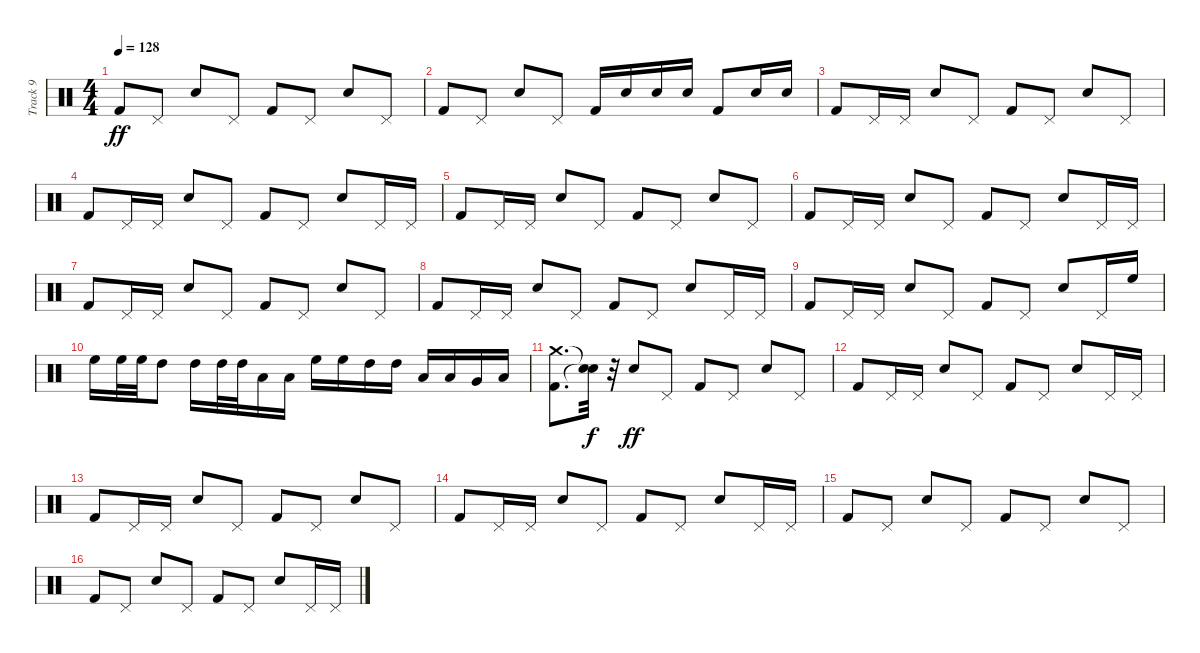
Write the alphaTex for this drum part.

\track ("Track 9" "Track 9") {instrument percussion}
\staff {score}
\articulation defaults
\ts (4 4)
\tempo 128
\clef neutral
\ks c "Kick (hit) 2".8{dy ff} "Pedal Hi-Hat (hit)".8 "Snare (hit) 2".8 "Pedal Hi-Hat (hit)".8 "Kick (hit) 2".8 "Pedal Hi-Hat (hit)".8 "Snare (hit) 2".8 "Pedal Hi-Hat (hit)".8
|
"Kick (hit) 2".8 "Pedal Hi-Hat (hit)".8 "Snare (hit) 2".8 "Pedal Hi-Hat (hit)".8 "Kick (hit) 2".16 "Snare (hit) 2".16 "Snare (hit) 2".16 "Snare (hit) 2".16 "Kick (hit) 2".8 "Snare (hit) 2".16 "Snare (hit) 2".16 |
"Kick (hit) 2".8 "Pedal Hi-Hat (hit)".16 "Pedal Hi-Hat (hit)".16 "Snare (hit) 2".8 "Pedal Hi-Hat (hit)".8 "Kick (hit) 2".8 "Pedal Hi-Hat (hit)".8 "Snare (hit) 2".8 "Pedal Hi-Hat (hit)".8 |
"Kick (hit) 2".8 "Pedal Hi-Hat (hit)".16 "Pedal Hi-Hat (hit)".16 "Snare (hit) 2".8 "Pedal Hi-Hat (hit)".8 "Kick (hit) 2".8 "Pedal Hi-Hat (hit)".8 "Snare (hit) 2".8 "Pedal Hi-Hat (hit)".16 "Pedal Hi-Hat (hit)".16 |
"Kick (hit) 2".8 "Pedal Hi-Hat (hit)".16 "Pedal Hi-Hat (hit)".16 "Snare (hit) 2".8 "Pedal Hi-Hat (hit)".8 "Kick (hit) 2".8 "Pedal Hi-Hat (hit)".8 "Snare (hit) 2".8 "Pedal Hi-Hat (hit)".8 |
"Kick (hit) 2".8 "Pedal Hi-Hat (hit)".16 "Pedal Hi-Hat (hit)".16 "Snare (hit) 2".8 "Pedal Hi-Hat (hit)".8 "Kick (hit) 2".8 "Pedal Hi-Hat (hit)".8 "Snare (hit) 2".8 "Pedal Hi-Hat (hit)".16 "Pedal Hi-Hat (hit)".16 |
"Kick (hit) 2".8 "Pedal Hi-Hat (hit)".16 "Pedal Hi-Hat (hit)".16 "Snare (hit) 2".8 "Pedal Hi-Hat (hit)".8 "Kick (hit) 2".8 "Pedal Hi-Hat (hit)".8 "Snare (hit) 2".8 "Pedal Hi-Hat (hit)".8 |
"Kick (hit) 2".8 "Pedal Hi-Hat (hit)".16 "Pedal Hi-Hat (hit)".16 "Snare (hit) 2".8 "Pedal Hi-Hat (hit)".8 "Kick (hit) 2".8 "Pedal Hi-Hat (hit)".8 "Snare (hit) 2".8 "Pedal Hi-Hat (hit)".16 "Pedal Hi-Hat (hit)".16 |
"Kick (hit) 2".8 "Pedal Hi-Hat (hit)".16 "Pedal Hi-Hat (hit)".16 "Snare (hit) 2".8 "Pedal Hi-Hat (hit)".8 "Kick (hit) 2".8 "Pedal Hi-Hat (hit)".8 "Snare (hit) 2".8 "Pedal Hi-Hat (hit)".16 "High Floor Tom (hit)".16 |
"High Floor Tom (hit)".16 "High Floor Tom (hit)".32 "High Floor Tom (hit)".32 "High Tom (hit)".8 "High Tom (hit)".16 "High Tom (hit)".32 "High Tom (hit)".32 "Low Tom (hit)".16 "Low Tom (hit)".16 "High Floor Tom (hit)".16 "High Floor Tom (hit)".16 "High Tom (hit)".16 "High Tom (hit)".16 "Low Tom (hit)".16 "Low Tom (hit)".16 "Very Low Tom (hit)".16 "Low Floor Tom (hit)".16 |
("Kick (hit) 2" "Crash medium (hit)").8{d} ("Snare (hit)"{t} "Snare (hit)"{t}).32{dy f} r.32 "Snare (hit) 2".8{dy ff} "Pedal Hi-Hat (hit)".8 "Kick (hit) 2".8 "Pedal Hi-Hat (hit)".8 "Snare (hit) 2".8 "Pedal Hi-Hat (hit)".8 |
"Kick (hit) 2".8 "Pedal Hi-Hat (hit)".16 "Pedal Hi-Hat (hit)".16 "Snare (hit) 2".8 "Pedal Hi-Hat (hit)".8 "Kick (hit) 2".8 "Pedal Hi-Hat (hit)".8 "Snare (hit) 2".8 "Pedal Hi-Hat (hit)".16 "Pedal Hi-Hat (hit)".16 |
"Kick (hit) 2".8 "Pedal Hi-Hat (hit)".16 "Pedal Hi-Hat (hit)".16 "Snare (hit) 2".8 "Pedal Hi-Hat (hit)".8 "Kick (hit) 2".8 "Pedal Hi-Hat (hit)".8 "Snare (hit) 2".8 "Pedal Hi-Hat (hit)".8 |
"Kick (hit) 2".8 "Pedal Hi-Hat (hit)".16 "Pedal Hi-Hat (hit)".16 "Snare (hit) 2".8 "Pedal Hi-Hat (hit)".8 "Kick (hit) 2".8 "Pedal Hi-Hat (hit)".8 "Snare (hit) 2".8 "Pedal Hi-Hat (hit)".16 "Pedal Hi-Hat (hit)".16 |
"Kick (hit) 2".8 "Pedal Hi-Hat (hit)".8 "Snare (hit) 2".8 "Pedal Hi-Hat (hit)".8 "Kick (hit) 2".8 "Pedal Hi-Hat (hit)".8 "Snare (hit) 2".8 "Pedal Hi-Hat (hit)".8 |
"Kick (hit) 2".8 "Pedal Hi-Hat (hit)".8 "Snare (hit) 2".8 "Pedal Hi-Hat (hit)".8 "Kick (hit) 2".8 "Pedal Hi-Hat (hit)".8 "Snare (hit) 2".8 "Pedal Hi-Hat (hit)".16 "Pedal Hi-Hat (hit)".16
